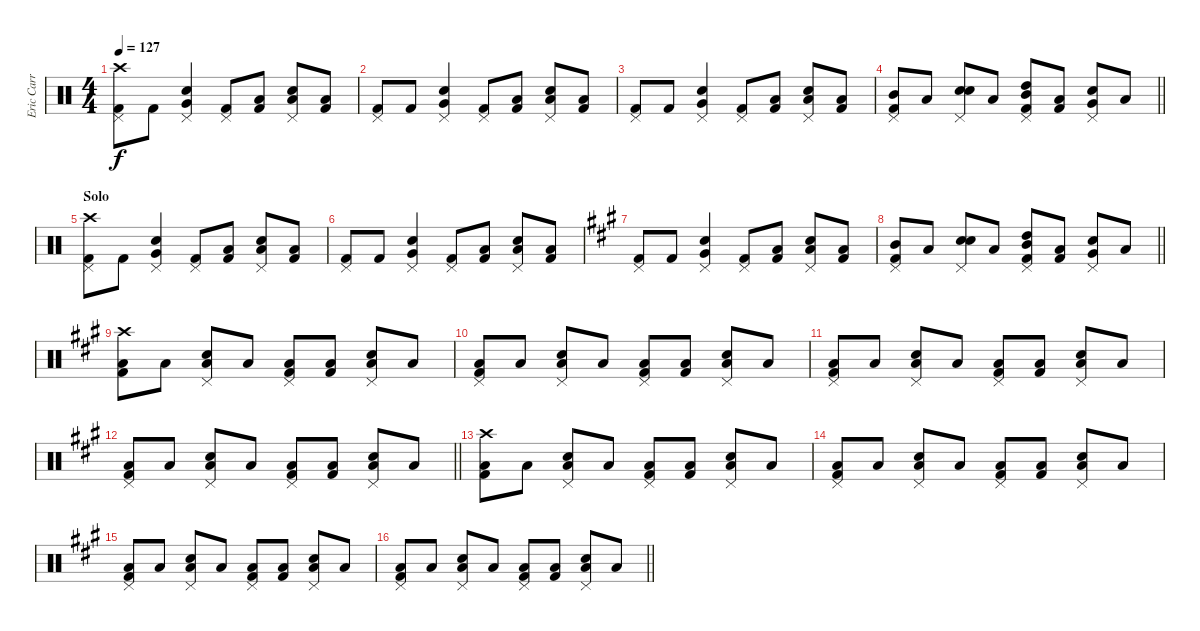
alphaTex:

\track ("Eric Carr (Drums)" "Eric Carr ") {instrument percussion}
\staff {score}
\articulation defaults
\ts (4 4)
\tempo 127
\clef neutral
\ks c
("Crash high (hit)" "Pedal Hi-Hat (hit)" "Kick (hit) 2").8{dy f} "Kick (hit) 2".8 ("Pedal Hi-Hat (hit)" "Very Low Tom (hit)" "Snare (hit) 2").4 ("Pedal Hi-Hat (hit)" "Kick (hit) 2").8 ("Low Tom (hit)" "Kick (hit) 2").8 ("Pedal Hi-Hat (hit)" "Low Floor Tom (hit)" "Snare (hit) 2").8 ("Low Tom (hit)" "Kick (hit) 2").8 |
("Pedal Hi-Hat (hit)" "Kick (hit) 2").8 "Kick (hit) 2".8 ("Pedal Hi-Hat (hit)" "Very Low Tom (hit)" "Snare (hit) 2").4 ("Pedal Hi-Hat (hit)" "Kick (hit) 2").8 ("Low Tom (hit)" "Kick (hit) 2").8 ("Pedal Hi-Hat (hit)" "Low Floor Tom (hit)" "Snare (hit) 2").8 ("Low Tom (hit)" "Kick (hit) 2").8 |
("Pedal Hi-Hat (hit)" "Kick (hit) 2").8 "Kick (hit) 2".8 ("Pedal Hi-Hat (hit)" "Very Low Tom (hit)" "Snare (hit) 2").4 ("Pedal Hi-Hat (hit)" "Kick (hit) 2").8 ("Low Tom (hit)" "Kick (hit) 2").8 ("Pedal Hi-Hat (hit)" "Low Floor Tom (hit)" "Snare (hit) 2").8 ("Low Tom (hit)" "Kick (hit) 2").8 |
\barLineRight lightlight
("Pedal Hi-Hat (hit)" "Mid Tom (hit)" "Kick (hit) 2").8 "Low Tom (hit)".8 ("Pedal Hi-Hat (hit)" "Snare (hit) 2" "Snare (hit) 2").8 "Low Tom (hit)".8 ("Pedal Hi-Hat (hit)" "Mid Tom (hit)" "High Tom (hit)" "Kick (hit) 2").8 ("Low Tom (hit)" "Kick (hit) 2").8 ("Pedal Hi-Hat (hit)" "Very Low Tom (hit)" "Snare (hit) 2").8 "Low Tom (hit)".8 |
\section ("" "Solo")
("Crash high (hit)" "Pedal Hi-Hat (hit)" "Kick (hit) 2").8 "Kick (hit) 2".8 ("Pedal Hi-Hat (hit)" "Very Low Tom (hit)" "Snare (hit) 2").4 ("Pedal Hi-Hat (hit)" "Kick (hit) 2").8 ("Low Tom (hit)" "Kick (hit) 2").8 ("Pedal Hi-Hat (hit)" "Low Floor Tom (hit)" "Snare (hit) 2").8 ("Low Tom (hit)" "Kick (hit) 2").8 |
("Pedal Hi-Hat (hit)" "Kick (hit) 2").8 "Kick (hit) 2".8 ("Pedal Hi-Hat (hit)" "Very Low Tom (hit)" "Snare (hit) 2").4 ("Pedal Hi-Hat (hit)" "Kick (hit) 2").8 ("Low Tom (hit)" "Kick (hit) 2").8 ("Pedal Hi-Hat (hit)" "Low Floor Tom (hit)" "Snare (hit) 2").8 ("Low Tom (hit)" "Kick (hit) 2").8 |
\ks a
("Pedal Hi-Hat (hit)" "Kick (hit) 2").8 "Kick (hit) 2".8 ("Pedal Hi-Hat (hit)" "Very Low Tom (hit)" "Snare (hit) 2").4 ("Pedal Hi-Hat (hit)" "Kick (hit) 2").8 ("Low Tom (hit)" "Kick (hit) 2").8 ("Pedal Hi-Hat (hit)" "Low Floor Tom (hit)" "Snare (hit) 2").8 ("Low Tom (hit)" "Kick (hit) 2").8 |
\barLineRight lightlight
("Pedal Hi-Hat (hit)" "Mid Tom (hit)" "Kick (hit) 2").8 "Low Tom (hit)".8 ("Pedal Hi-Hat (hit)" "Snare (hit) 2" "Snare (hit) 2").8 "Low Tom (hit)".8 ("Pedal Hi-Hat (hit)" "Mid Tom (hit)" "High Tom (hit)" "Kick (hit) 2").8 ("Low Tom (hit)" "Kick (hit) 2").8 ("Pedal Hi-Hat (hit)" "Very Low Tom (hit)" "Snare (hit) 2").8 "Low Tom (hit)".8 |
("Crash high (hit)" "Low Tom (hit)" "Kick (hit) 2").8 "Low Tom (hit)".8 ("Pedal Hi-Hat (hit)" "Low Tom (hit)" "Snare (hit) 2").8 "Low Tom (hit)".8 ("Pedal Hi-Hat (hit)" "Low Tom (hit)" "Kick (hit) 2").8 ("Low Tom (hit)" "Kick (hit) 2").8 ("Pedal Hi-Hat (hit)" "Low Tom (hit)" "Snare (hit) 2").8 "Low Tom (hit)".8 |
("Pedal Hi-Hat (hit)" "Low Tom (hit)" "Kick (hit) 2").8 "Low Tom (hit)".8 ("Pedal Hi-Hat (hit)" "Low Tom (hit)" "Snare (hit) 2").8 "Low Tom (hit)".8 ("Pedal Hi-Hat (hit)" "Low Tom (hit)" "Kick (hit) 2").8 ("Low Tom (hit)" "Kick (hit) 2").8 ("Pedal Hi-Hat (hit)" "Low Tom (hit)" "Snare (hit) 2").8 "Low Tom (hit)".8 |
("Pedal Hi-Hat (hit)" "Low Tom (hit)" "Kick (hit) 2").8 "Low Tom (hit)".8 ("Pedal Hi-Hat (hit)" "Low Tom (hit)" "Snare (hit) 2").8 "Low Tom (hit)".8 ("Pedal Hi-Hat (hit)" "Low Tom (hit)" "Kick (hit) 2").8 ("Low Tom (hit)" "Kick (hit) 2").8 ("Pedal Hi-Hat (hit)" "Low Tom (hit)" "Snare (hit) 2").8 "Low Tom (hit)".8 |
\barLineRight lightlight
("Pedal Hi-Hat (hit)" "Low Tom (hit)" "Kick (hit) 2").8 "Low Tom (hit)".8 ("Pedal Hi-Hat (hit)" "Low Tom (hit)" "Snare (hit) 2").8 "Low Tom (hit)".8 ("Pedal Hi-Hat (hit)" "Low Tom (hit)" "Kick (hit) 2").8 ("Low Tom (hit)" "Kick (hit) 2").8 ("Pedal Hi-Hat (hit)" "Low Tom (hit)" "Snare (hit) 2").8 "Low Tom (hit)".8 |
("Crash high (hit)" "Low Tom (hit)" "Kick (hit) 2").8 "Low Tom (hit)".8 ("Pedal Hi-Hat (hit)" "Low Tom (hit)" "Snare (hit) 2").8 "Low Tom (hit)".8 ("Pedal Hi-Hat (hit)" "Low Tom (hit)" "Kick (hit) 2").8 ("Low Tom (hit)" "Kick (hit) 2").8 ("Pedal Hi-Hat (hit)" "Low Tom (hit)" "Snare (hit) 2").8 "Low Tom (hit)".8 |
("Pedal Hi-Hat (hit)" "Low Tom (hit)" "Kick (hit) 2").8 "Low Tom (hit)".8 ("Pedal Hi-Hat (hit)" "Low Tom (hit)" "Snare (hit) 2").8 "Low Tom (hit)".8 ("Pedal Hi-Hat (hit)" "Low Tom (hit)" "Kick (hit) 2").8 ("Low Tom (hit)" "Kick (hit) 2").8 ("Pedal Hi-Hat (hit)" "Low Tom (hit)" "Snare (hit) 2").8 "Low Tom (hit)".8 |
("Pedal Hi-Hat (hit)" "Low Tom (hit)" "Kick (hit) 2").8 "Low Tom (hit)".8 ("Pedal Hi-Hat (hit)" "Low Tom (hit)" "Snare (hit) 2").8 "Low Tom (hit)".8 ("Pedal Hi-Hat (hit)" "Low Tom (hit)" "Kick (hit) 2").8 ("Low Tom (hit)" "Kick (hit) 2").8 ("Pedal Hi-Hat (hit)" "Low Tom (hit)" "Snare (hit) 2").8 "Low Tom (hit)".8 |
\barLineRight lightlight
("Pedal Hi-Hat (hit)" "Low Tom (hit)" "Kick (hit) 2").8 "Low Tom (hit)".8 ("Pedal Hi-Hat (hit)" "Low Tom (hit)" "Snare (hit) 2").8 "Low Tom (hit)".8 ("Pedal Hi-Hat (hit)" "Low Tom (hit)" "Kick (hit) 2").8 ("Low Tom (hit)" "Kick (hit) 2").8 ("Pedal Hi-Hat (hit)" "Low Tom (hit)" "Snare (hit) 2").8 "Low Tom (hit)".8
